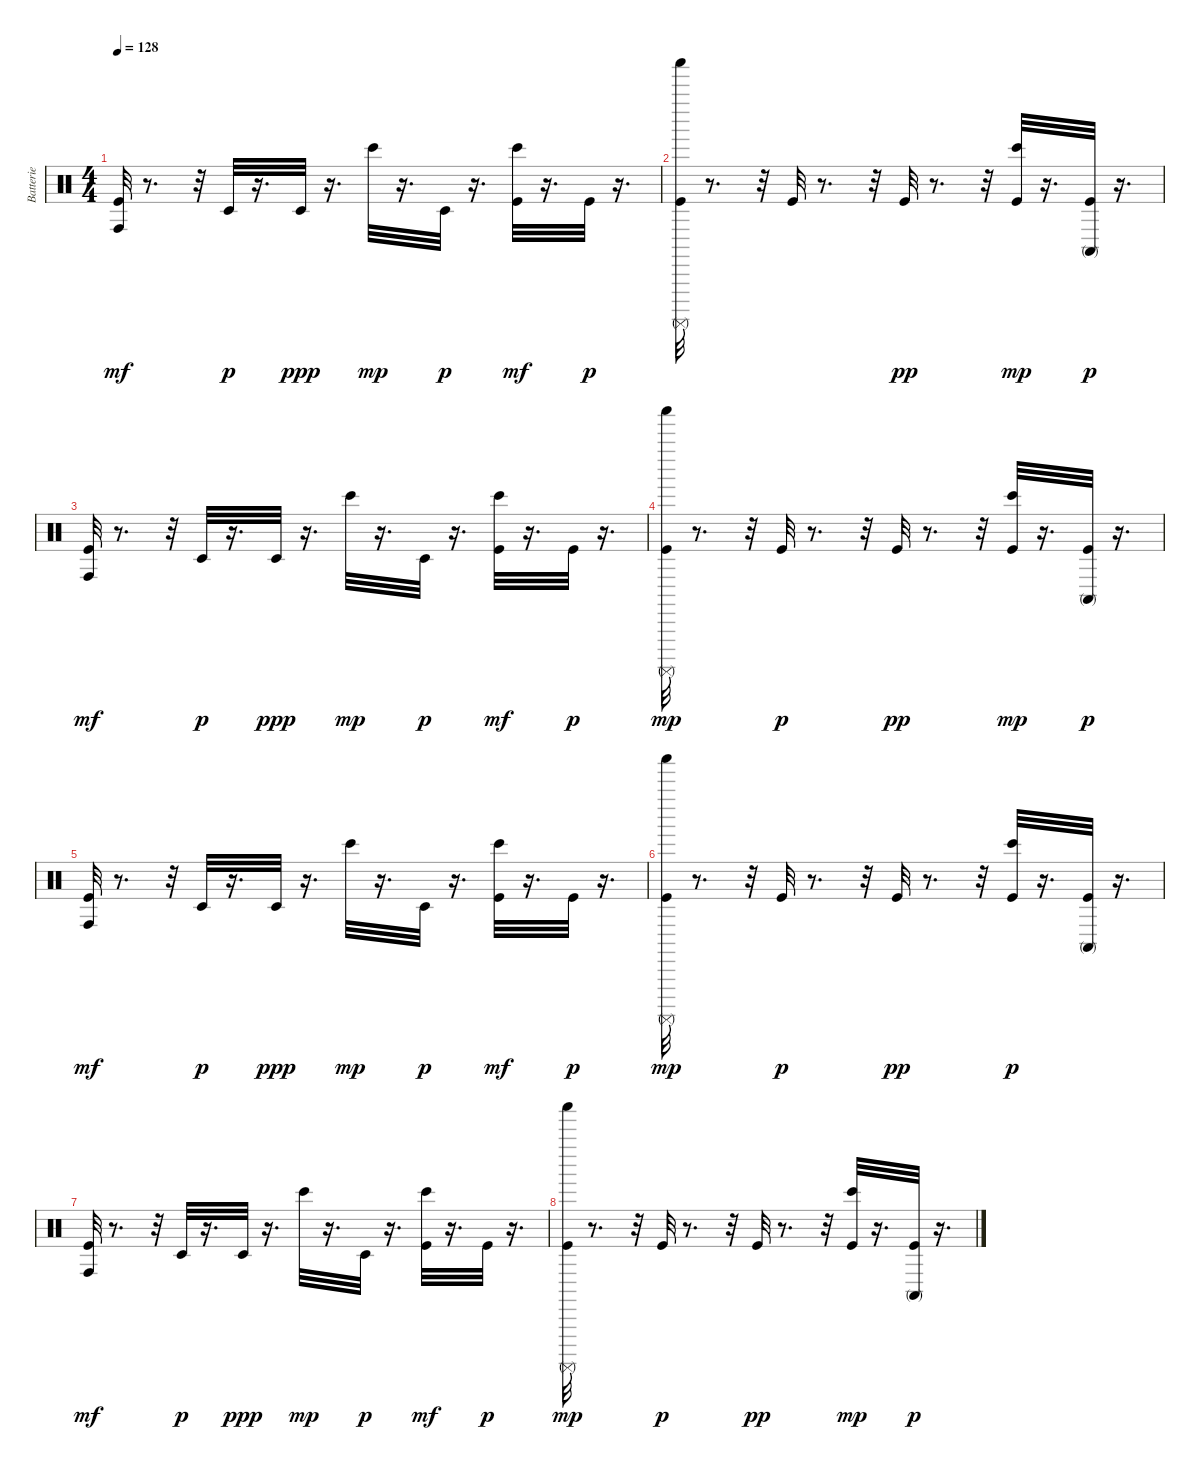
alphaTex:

\track ("Batterie" "Batterie") {instrument percussion}
\staff {score}
\articulation defaults
\ts (4 4)
\tempo 128
\clef neutral
\ks c
("Kick (hit)" "Conga high (hit)").32{dy mf} r.8{d} r.32 "Timbale low (hit)".32{dy p} r.16{d} "Timbale low (hit)".32{dy ppp} r.16{d} "Bongo High (hit)".32{dy mp} r.16{d} "Timbale low (hit)".32{dy p} r.16{d} ("Kick (hit)" "Bongo High (hit)").32{dy mf} r.16{d} "Kick (hit)".32{dy p} r.16{d} |
("Surdo (mute)" "Shaker (hit)" "Kick (hit)").32 r.8{d} r.32 "Kick (hit)".32 r.8{d} r.32 "Kick (hit)".32{dy pp} r.8{d} r.32 ("Kick (hit)" "Bongo High (hit)").32{dy mp} r.16{d} ("Conga high (mute)" "Kick (hit)").32{dy p} r.16{d} |
("Kick (hit)" "Conga high (hit)").32{dy mf} r.8{d} r.32 "Timbale low (hit)".32{dy p} r.16{d} "Timbale low (hit)".32{dy ppp} r.16{d} "Bongo High (hit)".32{dy mp} r.16{d} "Timbale low (hit)".32{dy p} r.16{d} ("Kick (hit)" "Bongo High (hit)").32{dy mf} r.16{d} "Kick (hit)".32{dy p} r.16{d} |
("Surdo (mute)" "Kick (hit)" "Shaker (hit)").32{dy mp} r.8{d} r.32 "Kick (hit)".32{dy p} r.8{d} r.32 "Kick (hit)".32{dy pp} r.8{d} r.32 ("Kick (hit)" "Bongo High (hit)").32{dy mp} r.16{d} ("Kick (hit)" "Conga high (mute)").32{dy p} r.16{d} |
("Kick (hit)" "Conga high (hit)").32{dy mf} r.8{d} r.32 "Timbale low (hit)".32{dy p} r.16{d} "Timbale low (hit)".32{dy ppp} r.16{d} "Bongo High (hit)".32{dy mp} r.16{d} "Timbale low (hit)".32{dy p} r.16{d} ("Kick (hit)" "Bongo High (hit)").32{dy mf} r.16{d} "Kick (hit)".32{dy p} r.16{d} |
("Kick (hit)" "Shaker (hit)" "Surdo (mute)").32{dy mp} r.8{d} r.32 "Kick (hit)".32{dy p} r.8{d} r.32 "Kick (hit)".32{dy pp} r.8{d} r.32 ("Bongo High (hit)" "Kick (hit)").32{dy p} r.16{d} ("Kick (hit)" "Conga high (mute)").32 r.16{d} |
("Kick (hit)" "Conga high (hit)").32{dy mf} r.8{d} r.32 "Timbale low (hit)".32{dy p} r.16{d} "Timbale low (hit)".32{dy ppp} r.16{d} "Bongo High (hit)".32{dy mp} r.16{d} "Timbale low (hit)".32{dy p} r.16{d} ("Kick (hit)" "Bongo High (hit)").32{dy mf} r.16{d} "Kick (hit)".32{dy p} r.16{d} |
("Shaker (hit)" "Kick (hit)" "Surdo (mute)").32{dy mp} r.8{d} r.32 "Kick (hit)".32{dy p} r.8{d} r.32 "Kick (hit)".32{dy pp} r.8{d} r.32 ("Kick (hit)" "Bongo High (hit)").32{dy mp} r.16{d} ("Conga high (mute)" "Kick (hit)").32{dy p} r.16{d}
